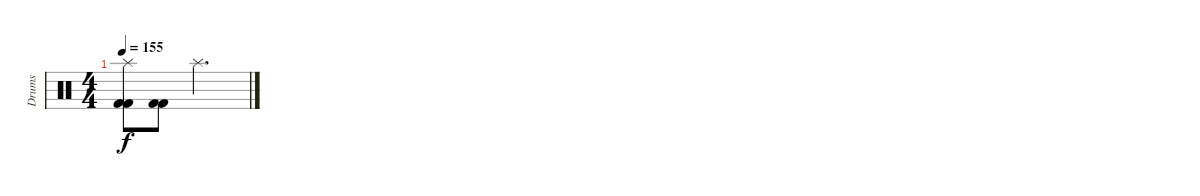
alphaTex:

\track ("Drums" "Drums") {instrument percussion}
\staff {score}
\articulation defaults
\ts (4 4)
\tempo 155
\clef neutral
\ks c
("Splash (hit)" "Kick (hit) 2" "Kick (hit) 2").8{dy f} ("Kick (hit) 2" "Kick (hit) 2").8 "Splash (hit)".2{d}
